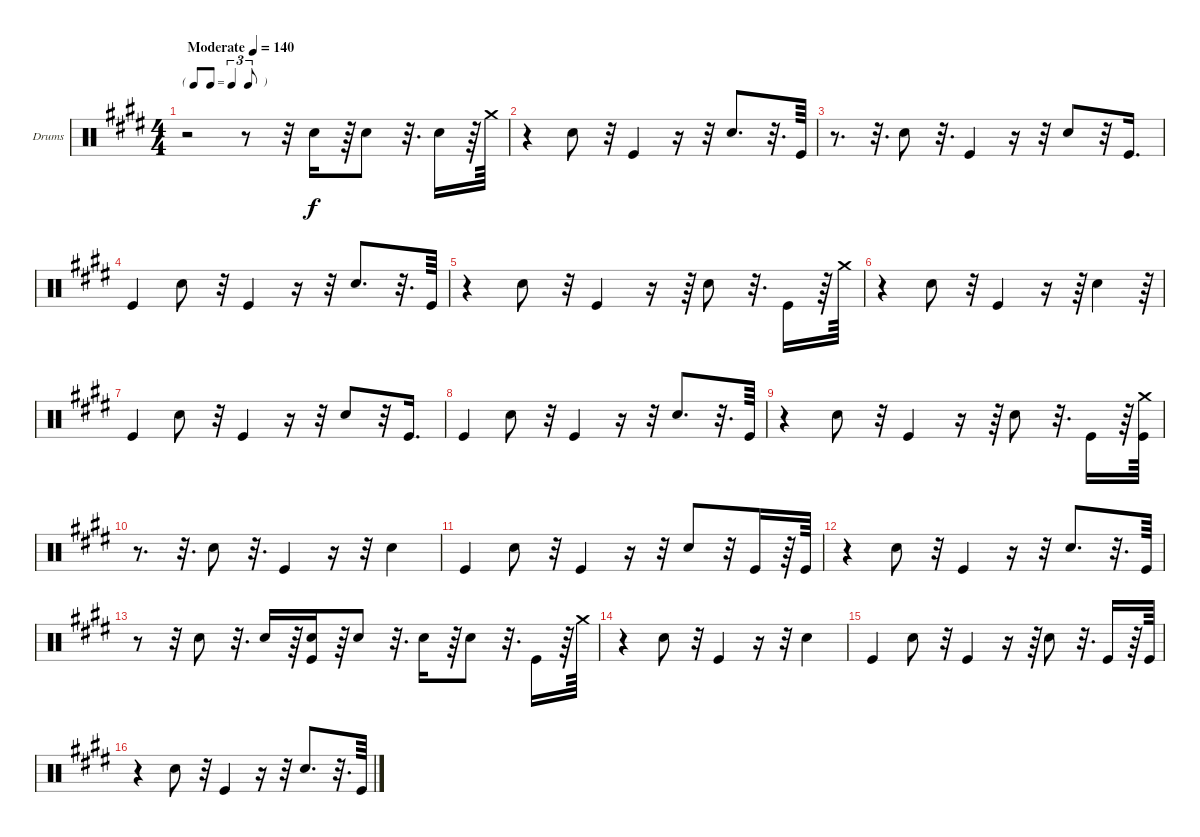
\bracketExtendMode groupsimilarinstruments
\firstSystemTrackNameOrientation horizontal
\otherSystemsTrackNameOrientation horizontal
\track ("Drumkit" "Drums") {instrument percussion}
\staff {score}
\articulation defaults
\ts (4 4)
\beaming (8 2 2 2 2)
\tf triplet8th
\tempo (140 "Moderate")
\clef neutral
\ks e
r.2{dy f} r.8 r.32 "Snare (hit) 2".16 r.64 "Snare (hit) 2".8 r.32{d} "Snare (hit) 2".16 r.64 "Crash medium (hit)".64 |
r.4 "Snare (hit) 2".8 r.32 "Kick (hit)".4 r.16 r.32 "Snare (hit) 2".8{d} r.32{d} "Kick (hit)".64 |
r.8{d} r.32{d} "Snare (hit) 2".8 r.32{d} "Kick (hit)".4 r.16 r.32 "Snare (hit) 2".8 r.32 "Kick (hit)".16{d} |
"Kick (hit)".4 "Snare (hit) 2".8 r.32 "Kick (hit)".4 r.16 r.32 "Snare (hit) 2".8{d} r.32{d} "Kick (hit)".64 |
r.4 "Snare (hit) 2".8 r.32 "Kick (hit)".4 r.16 r.64 "Snare (hit) 2".8 r.32{d} "Kick (hit)".16 r.64 "Crash medium (hit)".64 |
r.4 "Snare (hit) 2".8 r.32 "Kick (hit)".4 r.16 r.64 "Snare (hit) 2".4 r.64 |
"Kick (hit)".4 "Snare (hit) 2".8 r.32 "Kick (hit)".4 r.16 r.32 "Snare (hit) 2".8 r.32 "Kick (hit)".16{d} |
"Kick (hit)".4 "Snare (hit) 2".8 r.32 "Kick (hit)".4 r.16 r.32 "Snare (hit) 2".8{d} r.32{d} "Kick (hit)".64 |
r.4 "Snare (hit) 2".8 r.32 "Kick (hit)".4 r.16 r.64 "Snare (hit) 2".8 r.32{d} "Kick (hit)".16 r.64 ("Kick (hit)" "Crash medium (hit)").64 |
r.8{d} r.32{d} "Snare (hit) 2".8 r.32{d} "Kick (hit)".4 r.16 r.32 "Snare (hit) 2".4 |
"Kick (hit)".4 "Snare (hit) 2".8 r.32 "Kick (hit)".4 r.16 r.32 "Snare (hit) 2".8 r.32 "Kick (hit)".16 r.64 "Kick (hit)".64 |
r.4 "Snare (hit) 2".8 r.32 "Kick (hit)".4 r.16 r.32 "Snare (hit) 2".8{d} r.32{d} "Kick (hit)".64 |
r.8 r.32 "Snare (hit) 2".8 r.32{d} "Snare (hit) 2".16 r.64 ("Kick (hit)" "Snare (hit) 2").16 r.64 "Snare (hit) 2".8 r.32{d} "Snare (hit) 2".16 r.64 "Snare (hit) 2".8 r.32{d} "Kick (hit)".16 r.64 "Crash medium (hit)".64 |
r.4 "Snare (hit) 2".8 r.32 "Kick (hit)".4 r.16 r.32 "Snare (hit) 2".4 |
"Kick (hit)".4 "Snare (hit) 2".8 r.32 "Kick (hit)".4 r.16 r.64 "Snare (hit) 2".8 r.32{d} "Kick (hit)".16 r.64 "Kick (hit)".64 |
r.4 "Snare (hit) 2".8 r.32 "Kick (hit)".4 r.16 r.32 "Snare (hit) 2".8{d} r.32{d} "Kick (hit)".64
